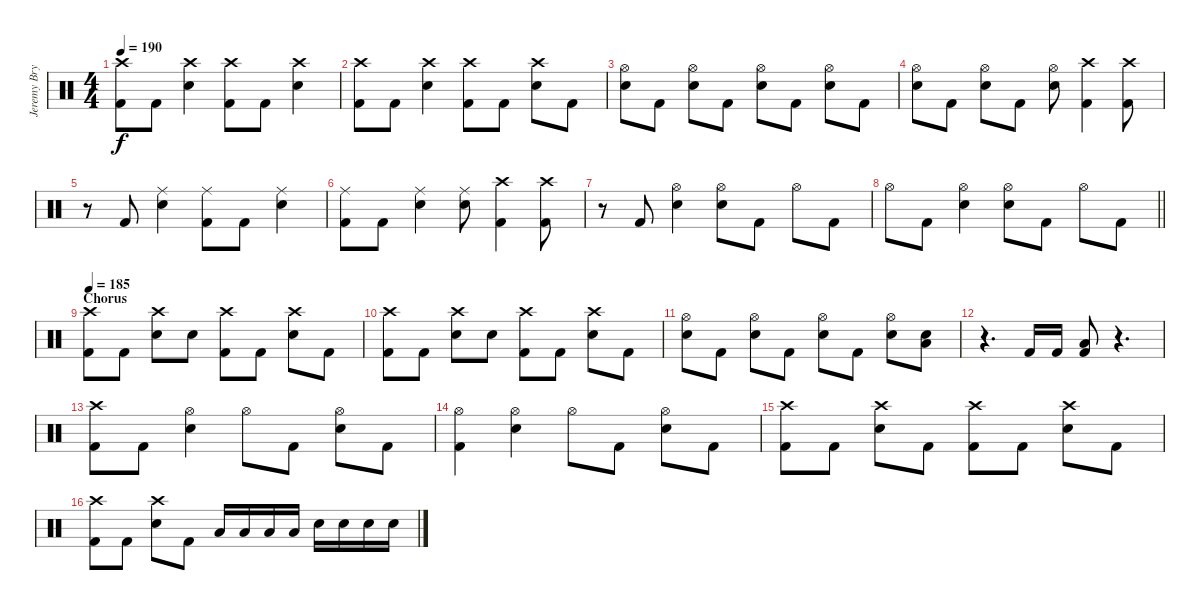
\track ("Jeremy Bryan - Drums" "Jeremy Bry") {instrument percussion}
\staff {score}
\articulation defaults
\ts (4 4)
\tempo 190
\clef neutral
\ks c
("Crash high (hit)" "Kick (hit) 2").8{dy f} "Kick (hit) 2".8 ("Crash high (hit)" "Electric Snare (hit)").4 ("Crash high (hit)" "Kick (hit) 2").8 "Kick (hit) 2".8 ("Crash high (hit)" "Electric Snare (hit)").4 |
("Crash high (hit)" "Kick (hit) 2").8 "Kick (hit) 2".8 ("Crash high (hit)" "Electric Snare (hit)").4 ("Crash high (hit)" "Kick (hit) 2").8 "Kick (hit) 2".8 ("Crash high (hit)" "Electric Snare (hit)").8 "Kick (hit) 2".8 |
("Hi-Hat (open)" "Electric Snare (hit)").8 "Kick (hit) 2".8 ("Hi-Hat (open)" "Electric Snare (hit)").8 "Kick (hit) 2".8 ("Hi-Hat (open)" "Electric Snare (hit)").8 "Kick (hit) 2".8 ("Hi-Hat (open)" "Electric Snare (hit)").8 "Kick (hit) 2".8 |
("Hi-Hat (open)" "Electric Snare (hit)").8 "Kick (hit) 2".8 ("Hi-Hat (open)" "Electric Snare (hit)").8 "Kick (hit) 2".8 ("Hi-Hat (open)" "Electric Snare (hit)").8 ("Crash high (hit)" "Kick (hit) 2").4 ("Crash high (hit)" "Kick (hit) 2").8 |
r.8 "Kick (hit) 2".8 ("Ride (middle)" "Electric Snare (hit)").4 ("Ride (middle)" "Kick (hit) 2").8 "Kick (hit) 2".8 ("Ride (middle)" "Electric Snare (hit)").4 |
("Ride (middle)" "Kick (hit) 2").8 "Kick (hit) 2".8 ("Ride (middle)" "Electric Snare (hit)").4 ("Ride (middle)" "Electric Snare (hit)").8 ("Crash high (hit)" "Kick (hit) 2").4 ("Crash high (hit)" "Kick (hit) 2").8 |
r.8 "Kick (hit) 2".8 ("Hi-Hat (open)" "Electric Snare (hit)").4 ("Hi-Hat (open)" "Electric Snare (hit)").8 "Kick (hit) 2".8 "Hi-Hat (open)".8 "Kick (hit) 2".8 |
\barLineRight lightlight "Hi-Hat (open)".8 "Kick (hit) 2".8
("Hi-Hat (open)" "Electric Snare (hit)").4 ("Hi-Hat (open)" "Electric Snare (hit)").8 "Kick (hit) 2".8 "Hi-Hat (open)".8 "Kick (hit) 2".8 |
\section ("" "Chorus")
\tempo 185
("Crash high (hit)" "Kick (hit) 2").8 "Kick (hit) 2".8 ("Crash high (hit)" "Electric Snare (hit)").8 "Electric Snare (hit)".8 ("Crash high (hit)" "Kick (hit) 2").8 "Kick (hit) 2".8 ("Crash high (hit)" "Electric Snare (hit)").8 "Kick (hit) 2".8 |
("Crash high (hit)" "Kick (hit) 2").8 "Kick (hit) 2".8 ("Crash high (hit)" "Electric Snare (hit)").8 "Electric Snare (hit)".8 ("Crash high (hit)" "Kick (hit) 2").8 "Kick (hit) 2".8 ("Crash high (hit)" "Electric Snare (hit)").8 "Kick (hit) 2".8 |
("Hi-Hat (open)" "Electric Snare (hit)").8 "Kick (hit) 2".8 ("Hi-Hat (open)" "Electric Snare (hit)").8 "Kick (hit) 2".8 ("Hi-Hat (open)" "Electric Snare (hit)").8 "Kick (hit) 2".8 ("Hi-Hat (open)" "Electric Snare (hit)").8 ("Low Floor Tom (hit)" "Electric Snare (hit)").8 |
r.4{d} "Kick (hit) 2".16 "Kick (hit) 2".16 ("Low Floor Tom (hit)" "Kick (hit) 2").8 r.4{d} |
("Crash high (hit)" "Kick (hit) 2").8 "Kick (hit) 2".8 ("Hi-Hat (open)" "Electric Snare (hit)").4 "Hi-Hat (open)".8 "Kick (hit) 2".8 ("Hi-Hat (open)" "Electric Snare (hit)").8 "Kick (hit) 2".8 |
("Hi-Hat (open)" "Kick (hit) 2").4 ("Hi-Hat (open)" "Electric Snare (hit)").4 "Hi-Hat (open)".8 "Kick (hit) 2".8 ("Hi-Hat (open)" "Electric Snare (hit)").8 "Kick (hit) 2".8 |
("Crash high (hit)" "Kick (hit) 2").8 "Kick (hit) 2".8 ("Crash high (hit)" "Electric Snare (hit)").8 "Kick (hit) 2".8 ("Crash high (hit)" "Kick (hit) 2").8 "Kick (hit) 2".8 ("Crash high (hit)" "Electric Snare (hit)").8 "Kick (hit) 2".8 |
("Crash high (hit)" "Kick (hit) 2").8 "Kick (hit) 2".8 ("Crash high (hit)" "Electric Snare (hit)").8 "Kick (hit) 2".8 "Low Tom (hit)".16 "Low Tom (hit)".16 "Low Tom (hit)".16 "Low Tom (hit)".16 "Electric Snare (hit)".16 "Electric Snare (hit)".16 "Electric Snare (hit)".16 "Electric Snare (hit)".16
